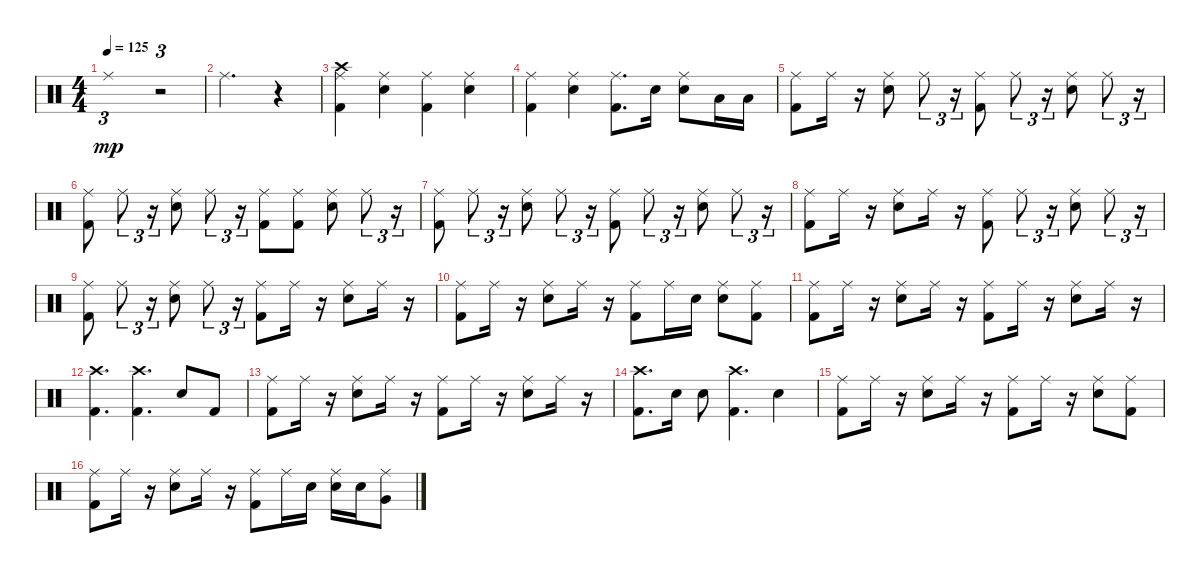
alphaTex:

\track "" {instrument percussion}
\staff {score}
\articulation defaults
\ts (4 4)
\tempo 125
\clef neutral
\ks c "Ride (middle)".1{tu (3 2) dy mp}
r.2{tu (3 2)} |
"Ride (middle)".2{d} r.4 |
("Ride (middle)" "Crash high (hit)" "Kick (hit) 2").4 ("Ride (middle)" "Snare (hit) 2").4 ("Ride (middle)" "Kick (hit) 2").4 ("Ride (middle)" "Snare (hit) 2").4 |
("Ride (middle)" "Kick (hit) 2").4 ("Ride (middle)" "Snare (hit) 2").4 ("Ride (middle)" "Kick (hit) 2").8{d} "Snare (hit) 2".16 ("Snare (hit) 2" "Ride (middle)").8 "Low Floor Tom (hit)".16 "Low Floor Tom (hit)".16 |
("Ride (middle)" "Kick (hit) 2").8 "Ride (middle)".16 r.16 ("Ride (middle)" "Snare (hit) 2").8 "Ride (middle)".8{tu (3 2)} r.16{tu (3 2)} ("Ride (middle)" "Kick (hit) 2").8 "Ride (middle)".8{tu (3 2)} r.16{tu (3 2)} ("Ride (middle)" "Snare (hit) 2").8 "Ride (middle)".8{tu (3 2)} r.16{tu (3 2)} |
("Ride (middle)" "Kick (hit) 2").8 "Ride (middle)".8{tu (3 2)} r.16{tu (3 2)} ("Ride (middle)" "Snare (hit) 2").8 "Ride (middle)".8{tu (3 2)} r.16{tu (3 2)} ("Ride (middle)" "Kick (hit) 2").8 ("Ride (middle)" "Kick (hit) 2").8 ("Ride (middle)" "Snare (hit) 2").8 "Ride (middle)".8{tu (3 2)} r.16{tu (3 2)} |
("Ride (middle)" "Kick (hit) 2").8 "Ride (middle)".8{tu (3 2)} r.16{tu (3 2)} ("Ride (middle)" "Snare (hit) 2").8 "Ride (middle)".8{tu (3 2)} r.16{tu (3 2)} ("Ride (middle)" "Kick (hit) 2").8 "Ride (middle)".8{tu (3 2)} r.16{tu (3 2)} ("Ride (middle)" "Snare (hit) 2").8 "Ride (middle)".8{tu (3 2)} r.16{tu (3 2)} |
("Ride (middle)" "Kick (hit) 2").8 "Ride (middle)".16 r.16 ("Ride (middle)" "Snare (hit) 2").8 "Ride (middle)".16 r.16 ("Ride (middle)" "Kick (hit) 2").8 "Ride (middle)".8{tu (3 2)} r.16{tu (3 2)} ("Ride (middle)" "Snare (hit) 2").8 "Ride (middle)".8{tu (3 2)} r.16{tu (3 2)} |
("Ride (middle)" "Kick (hit) 2").8 "Ride (middle)".8{tu (3 2)} r.16{tu (3 2)} ("Ride (middle)" "Snare (hit) 2").8 "Ride (middle)".8{tu (3 2)} r.16{tu (3 2)} ("Ride (middle)" "Kick (hit) 2").8 "Ride (middle)".16 r.16 ("Ride (middle)" "Snare (hit) 2").8 "Ride (middle)".16 r.16 |
("Ride (middle)" "Kick (hit) 2").8 "Ride (middle)".16 r.16 ("Ride (middle)" "Snare (hit) 2").8 "Ride (middle)".16 r.16 ("Ride (middle)" "Kick (hit) 2").8 "Ride (middle)".16 "Snare (hit) 2".16 ("Ride (middle)" "Snare (hit) 2").8 ("Ride (middle)" "Kick (hit) 2").8 |
("Ride (middle)" "Kick (hit) 2").8 "Ride (middle)".16 r.16 ("Ride (middle)" "Snare (hit) 2").8 "Ride (middle)".16 r.16 ("Ride (middle)" "Kick (hit) 2").8 "Ride (middle)".16 r.16 ("Ride (middle)" "Snare (hit) 2").8 "Ride (middle)".16 r.16 |
("Kick (hit) 2" "Crash high (hit)").4{d} ("Crash high (hit)" "Kick (hit) 2").4{d} "Snare (hit) 2".8 "Kick (hit) 2".8 |
("Ride (middle)" "Kick (hit) 2").8 "Ride (middle)".16 r.16 ("Ride (middle)" "Snare (hit) 2").8 "Ride (middle)".16 r.16 ("Ride (middle)" "Kick (hit) 2").8 "Ride (middle)".16 r.16 ("Ride (middle)" "Snare (hit) 2").8 "Ride (middle)".16 r.16 |
("Crash high (hit)" "Kick (hit) 2").8{d} "Snare (hit) 2".16 "Snare (hit) 2".8 ("Crash high (hit)" "Kick (hit) 2").4{d} "Snare (hit) 2".4 |
("Ride (middle)" "Kick (hit) 2").8 "Ride (middle)".16 r.16 ("Ride (middle)" "Snare (hit) 2").8 "Ride (middle)".16 r.16 ("Ride (middle)" "Kick (hit) 2").8 "Ride (middle)".16 r.16 ("Ride (middle)" "Snare (hit) 2").8 ("Ride (middle)" "Kick (hit) 2").8 |
("Ride (middle)" "Kick (hit) 2").8 "Ride (middle)".16 r.16 ("Ride (middle)" "Snare (hit) 2").8 "Ride (middle)".16 r.16 ("Ride (middle)" "Kick (hit) 2").8 "Ride (middle)".16 "Snare (hit) 2".16 ("Snare (hit) 2" "Ride (middle)").16 "Snare (hit) 2".16 ("Ride (middle)" "Very Low Tom (hit)").8
